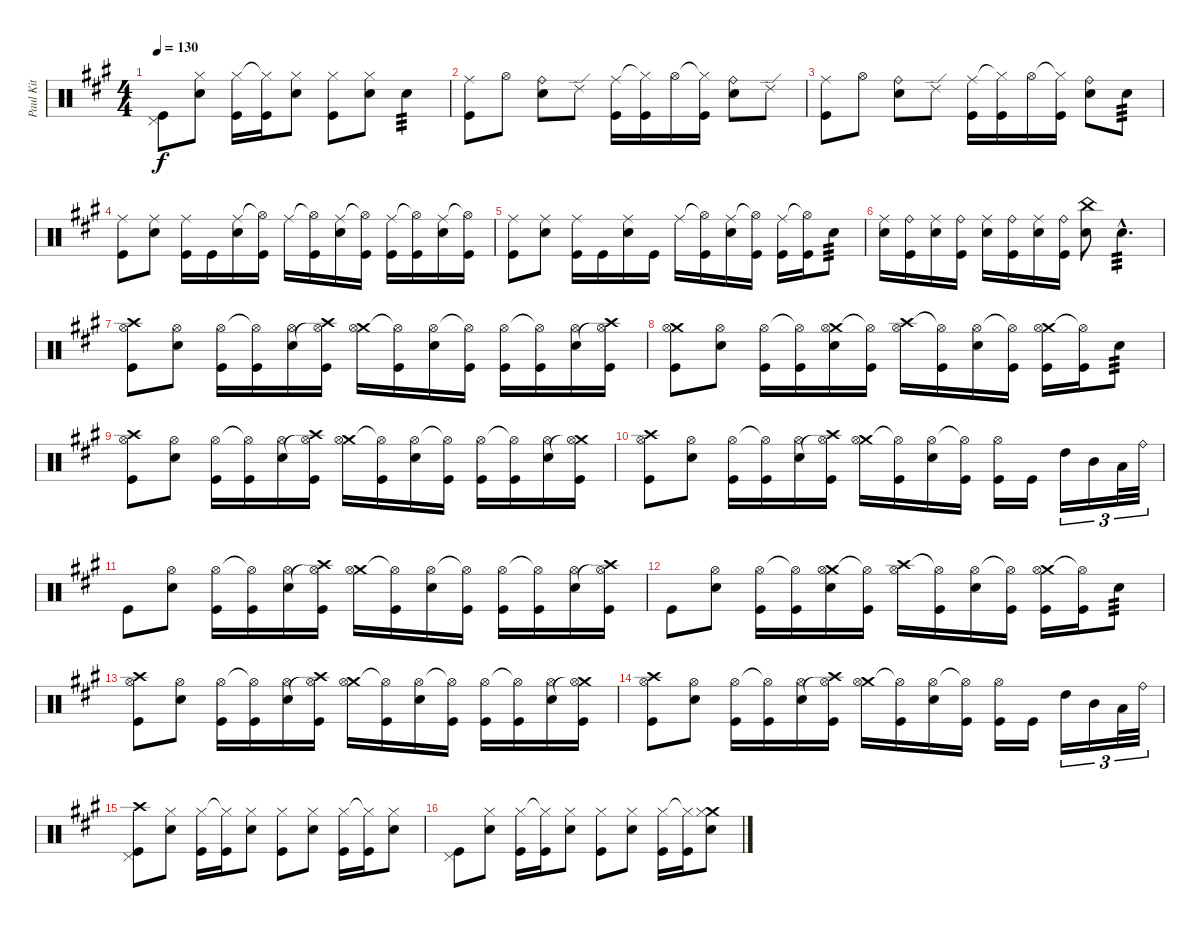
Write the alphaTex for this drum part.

\track ("Paul Kit" "Paul Kit") {instrument percussion}
\staff {score}
\articulation defaults
\ts (4 4)
\tempo 130
\clef neutral
\ks a
("Pedal Hi-Hat (hit)" "Kick (hit)").8{dy f} ("Hi-Hat (closed)" "Snare (hit) 2").8 ("Hi-Hat (closed)" "Kick (hit)").16 ("Hi-Hat (closed)"{t} "Kick (hit)").16 ("Hi-Hat (closed)" "Snare (hit) 2").8 ("Hi-Hat (closed)" "Kick (hit)").8 ("Hi-Hat (closed)" "Snare (hit) 2").8 "Snare (hit) 2".4{tp 3} |
("Ride (middle)" "Kick (hit)").8 "Hi-Hat (open)".8 ("Ride (bell)" "Snare (hit) 2").8 "Ride (edge) 2".8 ("Ride (middle)" "Kick (hit)").16 ("Hi-Hat (closed)"{t} "Kick (hit)").16 "Hi-Hat (open)".16 ("Hi-Hat (closed)"{t} "Kick (hit)").16 ("Ride (bell)" "Snare (hit) 2").8 "Ride (edge) 2".8 |
("Ride (middle)" "Kick (hit)").8 "Hi-Hat (open)".8 ("Ride (bell)" "Snare (hit) 2").8 "Ride (edge) 2".8 ("Ride (middle)" "Kick (hit)").16 ("Hi-Hat (closed)"{t} "Kick (hit)").16 "Hi-Hat (open)".16 ("Hi-Hat (closed)"{t} "Kick (hit)").16 ("Ride (bell)" "Snare (hit) 2").8 "Snare (hit) 2".8{tp 3} |
("Ride (middle)" "Kick (hit)").8 ("Ride (middle)" "Snare (hit) 2").8 ("Ride (middle)" "Kick (hit)").16 "Kick (hit)".16 ("Ride (middle)" "Snare (hit) 2").16 ("Hi-Hat (open)"{t} "Kick (hit)").16 "Ride (middle)".16 ("Hi-Hat (open)"{t} "Kick (hit)").16 ("Ride (middle)" "Snare (hit) 2").16 ("Hi-Hat (open)"{t} "Kick (hit)").16 ("Ride (middle)" "Kick (hit)").16 ("Hi-Hat (open)"{t} "Kick (hit)").16 ("Ride (middle)" "Snare (hit) 2").16 ("Hi-Hat (open)"{t} "Kick (hit)").16 |
("Ride (middle)" "Kick (hit)").8 ("Ride (middle)" "Snare (hit) 2").8 ("Ride (middle)" "Kick (hit)").16 "Kick (hit)".16 ("Ride (middle)" "Snare (hit) 2").16 "Kick (hit)".16 "Ride (middle)".16 ("Hi-Hat (open)"{t} "Kick (hit)").16 ("Ride (middle)" "Snare (hit) 2").16 ("Hi-Hat (open)"{t} "Kick (hit)").16 ("Ride (middle)" "Kick (hit)").16 ("Hi-Hat (open)"{t} "Kick (hit)").16 "Snare (hit) 2".8{tp 3} |
("Ride (middle)" "Snare (hit) 2").16 ("Ride (bell)" "Kick (hit)").16 ("Ride (middle)" "Snare (hit) 2").16 ("Ride (bell)" "Kick (hit)").16 ("Ride (middle)" "Snare (hit) 2").16 ("Ride (bell)" "Kick (hit)").16 ("Ride (middle)" "Snare (hit) 2").16 ("Ride (bell)" "Kick (hit)").16 ("China (hit)" "Snare (hit) 2").8 "Snare (hit) 2"{hac}.4{d tp 3} |
("Crash high (hit)" "Hi-Hat (open)" "Kick (hit)").8 ("Hi-Hat (open)" "Snare (hit) 2").8 ("Hi-Hat (open)" "Kick (hit)").16 ("Hi-Hat (open)"{t} "Kick (hit)").16 ("Hi-Hat (open)" "Snare (hit) 2").16 ("Crash high (hit)" "Hi-Hat (open)"{t} "Kick (hit)").16 ("Crash medium (hit)" "Hi-Hat (open)").16 ("Hi-Hat (open)"{t} "Kick (hit)").16 ("Hi-Hat (open)" "Snare (hit) 2").16 ("Hi-Hat (open)"{t} "Kick (hit)").16 ("Hi-Hat (open)" "Kick (hit)").16 ("Hi-Hat (open)"{t} "Kick (hit)").16 ("Hi-Hat (open)" "Snare (hit) 2").16 ("Crash high (hit)" "Hi-Hat (open)"{t} "Kick (hit)").16 |
("Crash medium (hit)" "Hi-Hat (open)" "Kick (hit)").8 ("Hi-Hat (open)" "Snare (hit) 2").8 ("Hi-Hat (open)" "Kick (hit)").16 ("Hi-Hat (open)"{t} "Kick (hit)").16 ("Crash medium (hit)" "Hi-Hat (open)" "Snare (hit) 2").16 ("Hi-Hat (open)"{t} "Kick (hit)").16 ("Crash high (hit)" "Hi-Hat (open)").16 ("Hi-Hat (open)"{t} "Kick (hit)").16 ("Hi-Hat (open)" "Snare (hit) 2").16 ("Hi-Hat (open)"{t} "Kick (hit)").16 ("Crash medium (hit)" "Hi-Hat (open)" "Kick (hit)").16 ("Hi-Hat (open)"{t} "Kick (hit)").16 "Snare (hit) 2".8{tp 3} |
("Crash high (hit)" "Hi-Hat (open)" "Kick (hit)").8 ("Hi-Hat (open)" "Snare (hit) 2").8 ("Hi-Hat (open)" "Kick (hit)").16 ("Hi-Hat (open)"{t} "Kick (hit)").16 ("Hi-Hat (open)" "Snare (hit) 2").16 ("Crash high (hit)" "Hi-Hat (open)"{t} "Kick (hit)").16 ("Crash medium (hit)" "Hi-Hat (open)").16 ("Hi-Hat (open)"{t} "Kick (hit)").16 ("Hi-Hat (open)" "Snare (hit) 2").16 ("Hi-Hat (open)"{t} "Kick (hit)").16 ("Hi-Hat (open)" "Kick (hit)").16 ("Hi-Hat (open)"{t} "Kick (hit)").16 ("Hi-Hat (open)" "Snare (hit) 2").16 ("Crash medium (hit)" "Hi-Hat (open)"{t} "Kick (hit)").16 |
("Crash high (hit)" "Hi-Hat (open)" "Kick (hit)").8 ("Hi-Hat (open)" "Snare (hit) 2").8 ("Hi-Hat (open)" "Kick (hit)").16 ("Hi-Hat (open)"{t} "Kick (hit)").16 ("Hi-Hat (open)" "Snare (hit) 2").16 ("Crash high (hit)" "Hi-Hat (open)"{t} "Kick (hit)").16 ("Crash medium (hit)" "Hi-Hat (open)").16 ("Hi-Hat (open)"{t} "Kick (hit)").16 ("Hi-Hat (open)" "Snare (hit) 2").16 ("Hi-Hat (open)"{t} "Kick (hit)").16 ("Hi-Hat (open)" "Kick (hit)").16 "Kick (hit)".16 "High Tom (hit)".16{tu (3 2)} "Mid Tom (hit)".16{tu (3 2)} "Low Tom (hit)".32{tu (3 2)} "Ride (bell)".32{tu (3 2)} |
"Kick (hit)".8 ("Hi-Hat (open)" "Snare (hit) 2").8 ("Hi-Hat (open)" "Kick (hit)").16 ("Hi-Hat (open)"{t} "Kick (hit)").16 ("Hi-Hat (open)" "Snare (hit) 2").16 ("Crash high (hit)" "Hi-Hat (open)"{t} "Kick (hit)").16 ("Crash medium (hit)" "Hi-Hat (open)").16 ("Hi-Hat (open)"{t} "Kick (hit)").16 ("Hi-Hat (open)" "Snare (hit) 2").16 ("Hi-Hat (open)"{t} "Kick (hit)").16 ("Hi-Hat (open)" "Kick (hit)").16 ("Hi-Hat (open)"{t} "Kick (hit)").16 ("Hi-Hat (open)" "Snare (hit) 2").16 ("Crash high (hit)" "Hi-Hat (open)"{t} "Kick (hit)").16 |
"Kick (hit)".8 ("Hi-Hat (open)" "Snare (hit) 2").8 ("Hi-Hat (open)" "Kick (hit)").16 ("Hi-Hat (open)"{t} "Kick (hit)").16 ("Crash medium (hit)" "Hi-Hat (open)" "Snare (hit) 2").16 ("Hi-Hat (open)"{t} "Kick (hit)").16 ("Crash high (hit)" "Hi-Hat (open)").16 ("Hi-Hat (open)"{t} "Kick (hit)").16 ("Hi-Hat (open)" "Snare (hit) 2").16 ("Hi-Hat (open)"{t} "Kick (hit)").16 ("Crash medium (hit)" "Hi-Hat (open)" "Kick (hit)").16 ("Hi-Hat (open)"{t} "Kick (hit)").16 "Snare (hit) 2".8{tp 3} |
("Crash high (hit)" "Hi-Hat (open)" "Kick (hit)").8 ("Hi-Hat (open)" "Snare (hit) 2").8 ("Hi-Hat (open)" "Kick (hit)").16 ("Hi-Hat (open)"{t} "Kick (hit)").16 ("Hi-Hat (open)" "Snare (hit) 2").16 ("Crash high (hit)" "Hi-Hat (open)"{t} "Kick (hit)").16 ("Crash medium (hit)" "Hi-Hat (open)").16 ("Hi-Hat (open)"{t} "Kick (hit)").16 ("Hi-Hat (open)" "Snare (hit) 2").16 ("Hi-Hat (open)"{t} "Kick (hit)").16 ("Hi-Hat (open)" "Kick (hit)").16 ("Hi-Hat (open)"{t} "Kick (hit)").16 ("Hi-Hat (open)" "Snare (hit) 2").16 ("Crash medium (hit)" "Hi-Hat (open)"{t} "Kick (hit)").16 |
("Crash high (hit)" "Hi-Hat (open)" "Kick (hit)").8 ("Hi-Hat (open)" "Snare (hit) 2").8 ("Hi-Hat (open)" "Kick (hit)").16 ("Hi-Hat (open)"{t} "Kick (hit)").16 ("Hi-Hat (open)" "Snare (hit) 2").16 ("Crash high (hit)" "Hi-Hat (open)"{t} "Kick (hit)").16 ("Crash medium (hit)" "Hi-Hat (open)").16 ("Hi-Hat (open)"{t} "Kick (hit)").16 ("Hi-Hat (open)" "Snare (hit) 2").16 ("Hi-Hat (open)"{t} "Kick (hit)").16 ("Hi-Hat (open)" "Kick (hit)").16 "Kick (hit)".16 "High Tom (hit)".16{tu (3 2)} "Mid Tom (hit)".16{tu (3 2)} "Low Tom (hit)".32{tu (3 2)} "Ride (bell)".32{tu (3 2)} |
("Crash high (hit)" "Pedal Hi-Hat (hit)" "Kick (hit)").8 ("Hi-Hat (closed)" "Snare (hit) 2").8 ("Hi-Hat (closed)" "Kick (hit)").16 ("Hi-Hat (closed)"{t} "Kick (hit)").16 ("Hi-Hat (closed)" "Snare (hit) 2").8 ("Hi-Hat (closed)" "Kick (hit)").8 ("Hi-Hat (closed)" "Snare (hit) 2").8 ("Hi-Hat (closed)" "Kick (hit)").16 ("Hi-Hat (closed)"{t} "Kick (hit)").16 ("Hi-Hat (closed)" "Snare (hit) 2").8 |
("Pedal Hi-Hat (hit)" "Kick (hit)").8 ("Hi-Hat (closed)" "Snare (hit) 2").8 ("Hi-Hat (closed)" "Kick (hit)").16 ("Hi-Hat (closed)"{t} "Kick (hit)").16 ("Hi-Hat (closed)" "Snare (hit) 2").8 ("Hi-Hat (closed)" "Kick (hit)").8 ("Hi-Hat (closed)" "Snare (hit) 2").8 ("Hi-Hat (closed)" "Kick (hit)").16 ("Hi-Hat (closed)"{t} "Kick (hit)").16 ("Crash medium (hit)" "Hi-Hat (closed)" "Snare (hit) 2").8
